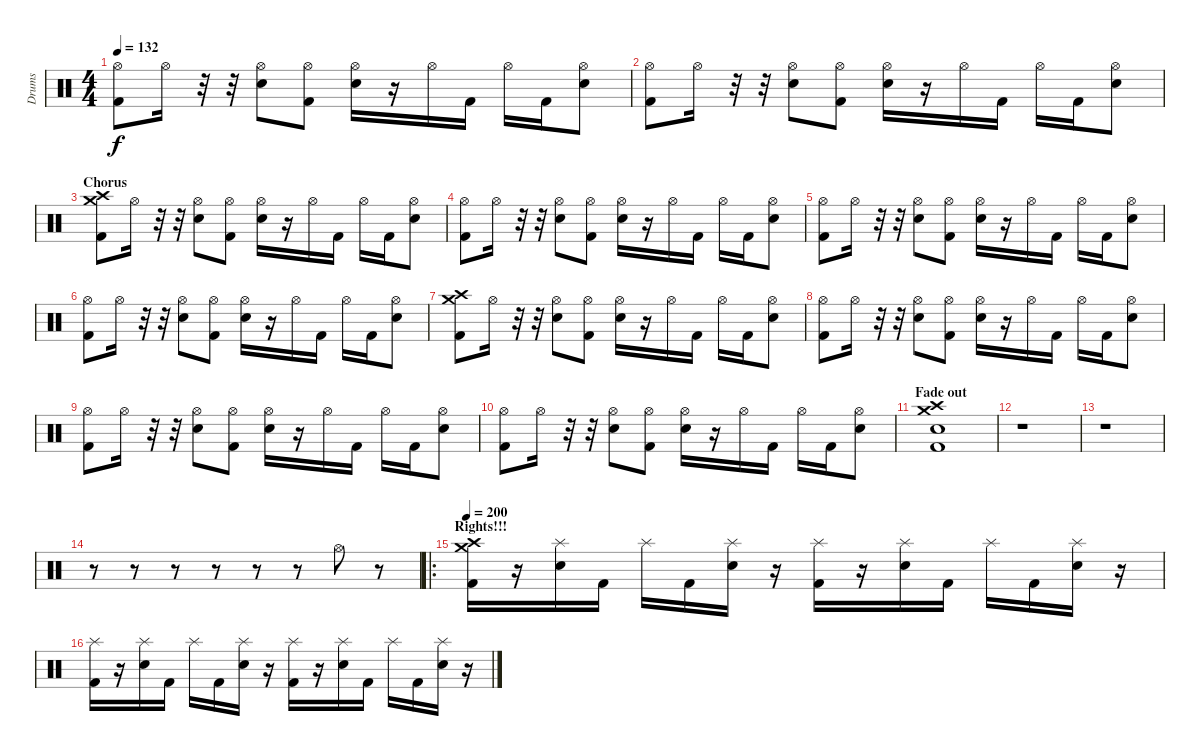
\track ("Drums" "Drums") {instrument percussion}
\staff {score}
\articulation defaults
\ts (4 4)
\tempo 132
\clef neutral
\ks c
("Hi-Hat (open)" "Kick (hit) 2").8{dy f} "Hi-Hat (open)".16 r.32 r.32 ("Hi-Hat (open)" "Snare (hit) 2").8 ("Hi-Hat (open)" "Kick (hit) 2").8 ("Hi-Hat (open)" "Snare (hit) 2").16 r.16 "Hi-Hat (open)".16 "Kick (hit) 2".16 "Hi-Hat (open)".16 "Kick (hit) 2".16 ("Hi-Hat (open)" "Snare (hit) 2").8 |
("Hi-Hat (open)" "Kick (hit) 2").8 "Hi-Hat (open)".16 r.32 r.32 ("Hi-Hat (open)" "Snare (hit) 2").8 ("Hi-Hat (open)" "Kick (hit) 2").8 ("Hi-Hat (open)" "Snare (hit) 2").16 r.16 "Hi-Hat (open)".16 "Kick (hit) 2".16 "Hi-Hat (open)".16 "Kick (hit) 2".16 ("Hi-Hat (open)" "Snare (hit) 2").8 |
\section ("" "Chorus")
("Crash medium (hit)" "Crash high (hit)" "Kick (hit) 2").8 "Hi-Hat (open)".16 r.32 r.32 ("Hi-Hat (open)" "Snare (hit) 2").8 ("Hi-Hat (open)" "Kick (hit) 2").8 ("Hi-Hat (open)" "Snare (hit) 2").16 r.16 "Hi-Hat (open)".16 "Kick (hit) 2".16 "Hi-Hat (open)".16 "Kick (hit) 2".16 ("Hi-Hat (open)" "Snare (hit) 2").8 |
("Hi-Hat (open)" "Kick (hit) 2").8 "Hi-Hat (open)".16 r.32 r.32 ("Hi-Hat (open)" "Snare (hit) 2").8 ("Hi-Hat (open)" "Kick (hit) 2").8 ("Hi-Hat (open)" "Snare (hit) 2").16 r.16 "Hi-Hat (open)".16 "Kick (hit) 2".16 "Hi-Hat (open)".16 "Kick (hit) 2".16 ("Hi-Hat (open)" "Snare (hit) 2").8 |
("Hi-Hat (open)" "Kick (hit) 2").8 "Hi-Hat (open)".16 r.32 r.32 ("Hi-Hat (open)" "Snare (hit) 2").8 ("Hi-Hat (open)" "Kick (hit) 2").8 ("Hi-Hat (open)" "Snare (hit) 2").16 r.16 "Hi-Hat (open)".16 "Kick (hit) 2".16 "Hi-Hat (open)".16 "Kick (hit) 2".16 ("Hi-Hat (open)" "Snare (hit) 2").8 |
("Hi-Hat (open)" "Kick (hit) 2").8 "Hi-Hat (open)".16 r.32 r.32 ("Hi-Hat (open)" "Snare (hit) 2").8 ("Hi-Hat (open)" "Kick (hit) 2").8 ("Hi-Hat (open)" "Snare (hit) 2").16 r.16 "Hi-Hat (open)".16 "Kick (hit) 2".16 "Hi-Hat (open)".16 "Kick (hit) 2".16 ("Hi-Hat (open)" "Snare (hit) 2").8 |
("Crash medium (hit)" "Crash high (hit)" "Kick (hit) 2").8 "Hi-Hat (open)".16 r.32 r.32 ("Hi-Hat (open)" "Snare (hit) 2").8 ("Hi-Hat (open)" "Kick (hit) 2").8 ("Hi-Hat (open)" "Snare (hit) 2").16 r.16 "Hi-Hat (open)".16 "Kick (hit) 2".16 "Hi-Hat (open)".16 "Kick (hit) 2".16 ("Hi-Hat (open)" "Snare (hit) 2").8 |
("Hi-Hat (open)" "Kick (hit) 2").8 "Hi-Hat (open)".16 r.32 r.32 ("Hi-Hat (open)" "Snare (hit) 2").8 ("Hi-Hat (open)" "Kick (hit) 2").8 ("Hi-Hat (open)" "Snare (hit) 2").16 r.16 "Hi-Hat (open)".16 "Kick (hit) 2".16 "Hi-Hat (open)".16 "Kick (hit) 2".16 ("Hi-Hat (open)" "Snare (hit) 2").8 |
("Hi-Hat (open)" "Kick (hit) 2").8 "Hi-Hat (open)".16 r.32 r.32 ("Hi-Hat (open)" "Snare (hit) 2").8 ("Hi-Hat (open)" "Kick (hit) 2").8 ("Hi-Hat (open)" "Snare (hit) 2").16 r.16 "Hi-Hat (open)".16 "Kick (hit) 2".16 "Hi-Hat (open)".16 "Kick (hit) 2".16 ("Hi-Hat (open)" "Snare (hit) 2").8 |
("Hi-Hat (open)" "Kick (hit) 2").8 "Hi-Hat (open)".16 r.32 r.32 ("Hi-Hat (open)" "Snare (hit) 2").8 ("Hi-Hat (open)" "Kick (hit) 2").8 ("Hi-Hat (open)" "Snare (hit) 2").16 r.16 "Hi-Hat (open)".16 "Kick (hit) 2".16 "Hi-Hat (open)".16 "Kick (hit) 2".16 ("Hi-Hat (open)" "Snare (hit) 2").8 |
\section ("" "Fade out")
("Crash medium (hit)" "Crash high (hit)" "Snare (hit) 2" "Kick (hit) 2").1 |
r.1 |
r.1 |
r.8 r.8 r.8 r.8 r.8 r.8 "Hi-Hat (open)".8 r.8 |
\ro
\section ("" "Rights!!!")
\tempo 200
("Crash medium (hit)" "Crash high (hit)" "Kick (hit) 2").16 r.16 ("Splash (hit)" "Snare (hit) 2").16 "Kick (hit) 2".16 "Splash (hit)".16 "Kick (hit) 2".16 ("Splash (hit)" "Snare (hit) 2").16 r.16 ("Splash (hit)" "Kick (hit) 2").16 r.16 ("Splash (hit)" "Snare (hit) 2").16 "Kick (hit) 2".16 "Splash (hit)".16 "Kick (hit) 2".16 ("Splash (hit)" "Snare (hit) 2").16 r.16 |
("Splash (hit)" "Kick (hit) 2").16 r.16 ("Splash (hit)" "Snare (hit) 2").16 "Kick (hit) 2".16 "Splash (hit)".16 "Kick (hit) 2".16 ("Splash (hit)" "Snare (hit) 2").16 r.16 ("Splash (hit)" "Kick (hit) 2").16 r.16 ("Splash (hit)" "Snare (hit) 2").16 "Kick (hit) 2".16 "Splash (hit)".16 "Kick (hit) 2".16 ("Splash (hit)" "Snare (hit) 2").16 r.16
